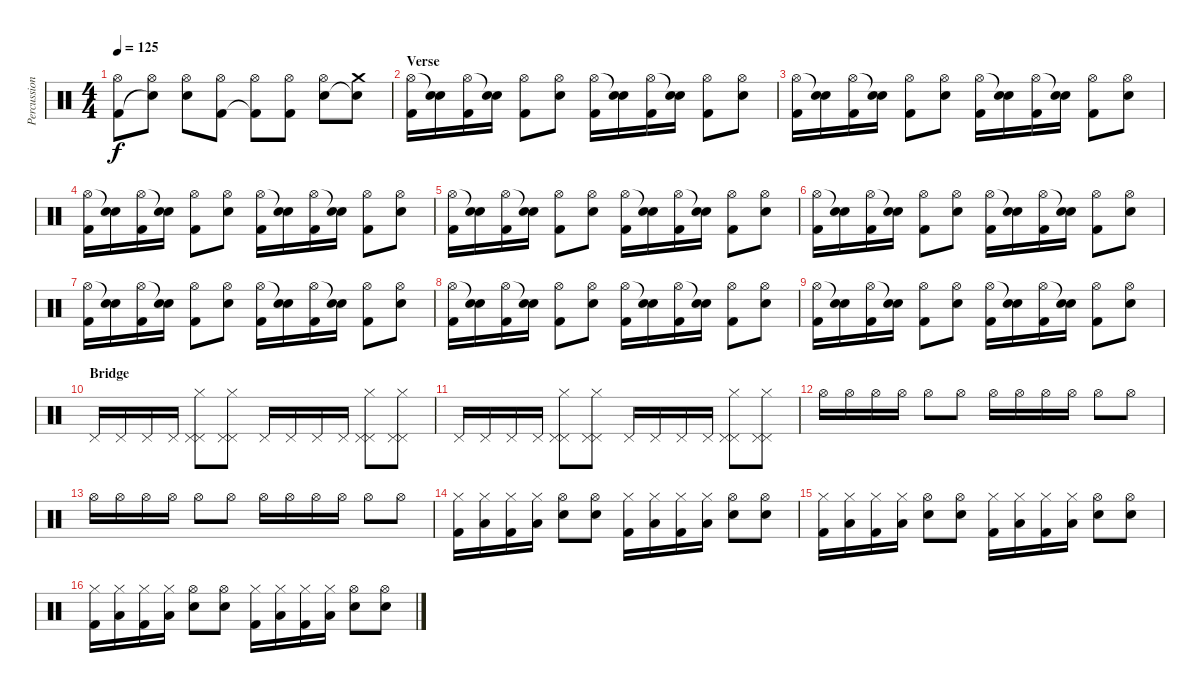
\track ("Percussion" "Percussion") {instrument percussion}
\staff {score}
\articulation defaults
\ts (4 4)
\tempo 125
\clef neutral
\ks c
("Hi-Hat (open)" "Kick (hit) 2").8{dy f} ("Hi-Hat (open)" "Snare (hit)"{t}).8 ("Hi-Hat (open)" "Electric Snare (hit)").8 ("Hi-Hat (open)" "Kick (hit) 2").8 ("Hi-Hat (open)" "Kick (hit) 2"{t}).8 ("Hi-Hat (open)" "Kick (hit) 2").8 ("Hi-Hat (open)" "Electric Snare (hit)").8 ("Crash medium (hit)" "Snare (hit)"{t}).8 |
\section ("" "Verse")
("Hi-Hat (open)" "Kick (hit) 2").16 ("Snare (hit)"{t} "Electric Snare (hit)").16 ("Hi-Hat (open)" "Kick (hit) 2").16 ("Snare (hit)"{t} "Electric Snare (hit)").16 ("Hi-Hat (open)" "Kick (hit) 2").8 ("Hi-Hat (open)" "Electric Snare (hit)").8 ("Hi-Hat (open)" "Kick (hit) 2").16 ("Snare (hit)"{t} "Electric Snare (hit)").16 ("Hi-Hat (open)" "Kick (hit) 2").16 ("Snare (hit)"{t} "Electric Snare (hit)").16 ("Hi-Hat (open)" "Kick (hit) 2").8 ("Hi-Hat (open)" "Electric Snare (hit)").8 |
("Hi-Hat (open)" "Kick (hit) 2").16 ("Snare (hit)"{t} "Electric Snare (hit)").16 ("Hi-Hat (open)" "Kick (hit) 2").16 ("Snare (hit)"{t} "Electric Snare (hit)").16 ("Hi-Hat (open)" "Kick (hit) 2").8 ("Hi-Hat (open)" "Electric Snare (hit)").8 ("Hi-Hat (open)" "Kick (hit) 2").16 ("Snare (hit)"{t} "Electric Snare (hit)").16 ("Hi-Hat (open)" "Kick (hit) 2").16 ("Snare (hit)"{t} "Electric Snare (hit)").16 ("Hi-Hat (open)" "Kick (hit) 2").8 ("Hi-Hat (open)" "Electric Snare (hit)").8 |
("Hi-Hat (open)" "Kick (hit) 2").16 ("Snare (hit)"{t} "Electric Snare (hit)").16 ("Hi-Hat (open)" "Kick (hit) 2").16 ("Snare (hit)"{t} "Electric Snare (hit)").16 ("Hi-Hat (open)" "Kick (hit) 2").8 ("Hi-Hat (open)" "Electric Snare (hit)").8 ("Hi-Hat (open)" "Kick (hit) 2").16 ("Snare (hit)"{t} "Electric Snare (hit)").16 ("Hi-Hat (open)" "Kick (hit) 2").16 ("Snare (hit)"{t} "Electric Snare (hit)").16 ("Hi-Hat (open)" "Kick (hit) 2").8 ("Hi-Hat (open)" "Electric Snare (hit)").8 |
("Hi-Hat (open)" "Kick (hit) 2").16 ("Snare (hit)"{t} "Electric Snare (hit)").16 ("Hi-Hat (open)" "Kick (hit) 2").16 ("Snare (hit)"{t} "Electric Snare (hit)").16 ("Hi-Hat (open)" "Kick (hit) 2").8 ("Hi-Hat (open)" "Electric Snare (hit)").8 ("Hi-Hat (open)" "Kick (hit) 2").16 ("Snare (hit)"{t} "Electric Snare (hit)").16 ("Hi-Hat (open)" "Kick (hit) 2").16 ("Snare (hit)"{t} "Electric Snare (hit)").16 ("Hi-Hat (open)" "Kick (hit) 2").8 ("Hi-Hat (open)" "Electric Snare (hit)").8 |
("Hi-Hat (open)" "Kick (hit) 2").16 ("Snare (hit)"{t} "Electric Snare (hit)").16 ("Hi-Hat (open)" "Kick (hit) 2").16 ("Snare (hit)"{t} "Electric Snare (hit)").16 ("Hi-Hat (open)" "Kick (hit) 2").8 ("Hi-Hat (open)" "Electric Snare (hit)").8 ("Hi-Hat (open)" "Kick (hit) 2").16 ("Snare (hit)"{t} "Electric Snare (hit)").16 ("Hi-Hat (open)" "Kick (hit) 2").16 ("Snare (hit)"{t} "Electric Snare (hit)").16 ("Hi-Hat (open)" "Kick (hit) 2").8 ("Hi-Hat (open)" "Electric Snare (hit)").8 |
("Hi-Hat (open)" "Kick (hit) 2").16 ("Snare (hit)"{t} "Electric Snare (hit)").16 ("Hi-Hat (open)" "Kick (hit) 2").16 ("Snare (hit)"{t} "Electric Snare (hit)").16 ("Hi-Hat (open)" "Kick (hit) 2").8 ("Hi-Hat (open)" "Electric Snare (hit)").8 ("Hi-Hat (open)" "Kick (hit) 2").16 ("Snare (hit)"{t} "Electric Snare (hit)").16 ("Hi-Hat (open)" "Kick (hit) 2").16 ("Snare (hit)"{t} "Electric Snare (hit)").16 ("Hi-Hat (open)" "Kick (hit) 2").8 ("Hi-Hat (open)" "Electric Snare (hit)").8 |
("Hi-Hat (open)" "Kick (hit) 2").16 ("Snare (hit)"{t} "Electric Snare (hit)").16 ("Hi-Hat (open)" "Kick (hit) 2").16 ("Snare (hit)"{t} "Electric Snare (hit)").16 ("Hi-Hat (open)" "Kick (hit) 2").8 ("Hi-Hat (open)" "Electric Snare (hit)").8 ("Hi-Hat (open)" "Kick (hit) 2").16 ("Snare (hit)"{t} "Electric Snare (hit)").16 ("Hi-Hat (open)" "Kick (hit) 2").16 ("Snare (hit)"{t} "Electric Snare (hit)").16 ("Hi-Hat (open)" "Kick (hit) 2").8 ("Hi-Hat (open)" "Electric Snare (hit)").8 |
("Hi-Hat (open)" "Kick (hit) 2").16 ("Snare (hit)"{t} "Electric Snare (hit)").16 ("Hi-Hat (open)" "Kick (hit) 2").16 ("Snare (hit)"{t} "Electric Snare (hit)").16 ("Hi-Hat (open)" "Kick (hit) 2").8 ("Hi-Hat (open)" "Electric Snare (hit)").8 ("Hi-Hat (open)" "Kick (hit) 2").16 ("Snare (hit)"{t} "Electric Snare (hit)").16 ("Hi-Hat (open)" "Kick (hit) 2").16 ("Snare (hit)"{t} "Electric Snare (hit)").16 ("Hi-Hat (open)" "Kick (hit) 2").8 ("Hi-Hat (open)" "Electric Snare (hit)").8 |
\section ("" "Bridge")
"Pedal Hi-Hat (hit)".16 "Pedal Hi-Hat (hit)".16 "Pedal Hi-Hat (hit)".16 "Pedal Hi-Hat (hit)".16 ("Pedal Hi-Hat (hit)" "Hi-Hat (closed)" "Pedal Hi-Hat (hit)").8 ("Pedal Hi-Hat (hit)" "Hi-Hat (closed)" "Pedal Hi-Hat (hit)").8 "Pedal Hi-Hat (hit)".16 "Pedal Hi-Hat (hit)".16 "Pedal Hi-Hat (hit)".16 "Pedal Hi-Hat (hit)".16 ("Pedal Hi-Hat (hit)" "Hi-Hat (closed)" "Pedal Hi-Hat (hit)").8 ("Pedal Hi-Hat (hit)" "Hi-Hat (closed)" "Pedal Hi-Hat (hit)").8 |
"Pedal Hi-Hat (hit)".16 "Pedal Hi-Hat (hit)".16 "Pedal Hi-Hat (hit)".16 "Pedal Hi-Hat (hit)".16 ("Pedal Hi-Hat (hit)" "Hi-Hat (closed)" "Pedal Hi-Hat (hit)").8 ("Pedal Hi-Hat (hit)" "Hi-Hat (closed)" "Pedal Hi-Hat (hit)").8 "Pedal Hi-Hat (hit)".16 "Pedal Hi-Hat (hit)".16 "Pedal Hi-Hat (hit)".16 "Pedal Hi-Hat (hit)".16 ("Pedal Hi-Hat (hit)" "Hi-Hat (closed)" "Pedal Hi-Hat (hit)").8 ("Pedal Hi-Hat (hit)" "Hi-Hat (closed)" "Pedal Hi-Hat (hit)").8 |
"Hi-Hat (open)".16 "Hi-Hat (open)".16 "Hi-Hat (open)".16 "Hi-Hat (open)".16 "Hi-Hat (open)".8 "Hi-Hat (open)".8 "Hi-Hat (open)".16 "Hi-Hat (open)".16 "Hi-Hat (open)".16 "Hi-Hat (open)".16 "Hi-Hat (open)".8 "Hi-Hat (open)".8 |
"Hi-Hat (open)".16 "Hi-Hat (open)".16 "Hi-Hat (open)".16 "Hi-Hat (open)".16 "Hi-Hat (open)".8 "Hi-Hat (open)".8 "Hi-Hat (open)".16 "Hi-Hat (open)".16 "Hi-Hat (open)".16 "Hi-Hat (open)".16 "Hi-Hat (open)".8 "Hi-Hat (open)".8 |
("Hi-Hat (closed)" "Kick (hit) 2").16 ("Hi-Hat (closed)" "Low Tom (hit)").16 ("Hi-Hat (closed)" "Kick (hit) 2").16 ("Hi-Hat (closed)" "Low Tom (hit)").16 ("Hi-Hat (open)" "Electric Snare (hit)").8 ("Hi-Hat (open)" "Electric Snare (hit)").8 ("Hi-Hat (closed)" "Kick (hit) 2").16 ("Hi-Hat (closed)" "Low Tom (hit)").16 ("Hi-Hat (closed)" "Kick (hit) 2").16 ("Hi-Hat (closed)" "Low Tom (hit)").16 ("Hi-Hat (open)" "Electric Snare (hit)").8 ("Hi-Hat (open)" "Electric Snare (hit)").8 |
("Hi-Hat (closed)" "Kick (hit) 2").16 ("Hi-Hat (closed)" "Low Tom (hit)").16 ("Hi-Hat (closed)" "Kick (hit) 2").16 ("Hi-Hat (closed)" "Low Tom (hit)").16 ("Hi-Hat (open)" "Electric Snare (hit)").8 ("Hi-Hat (open)" "Electric Snare (hit)").8 ("Hi-Hat (closed)" "Kick (hit) 2").16 ("Hi-Hat (closed)" "Low Tom (hit)").16 ("Hi-Hat (closed)" "Kick (hit) 2").16 ("Hi-Hat (closed)" "Low Tom (hit)").16 ("Hi-Hat (open)" "Electric Snare (hit)").8 ("Hi-Hat (open)" "Electric Snare (hit)").8 |
("Hi-Hat (closed)" "Kick (hit) 2").16 ("Hi-Hat (closed)" "Low Tom (hit)").16 ("Hi-Hat (closed)" "Kick (hit) 2").16 ("Hi-Hat (closed)" "Low Tom (hit)").16 ("Hi-Hat (open)" "Electric Snare (hit)").8 ("Hi-Hat (open)" "Electric Snare (hit)").8 ("Hi-Hat (closed)" "Kick (hit) 2").16 ("Hi-Hat (closed)" "Low Tom (hit)").16 ("Hi-Hat (closed)" "Kick (hit) 2").16 ("Hi-Hat (closed)" "Low Tom (hit)").16 ("Hi-Hat (open)" "Electric Snare (hit)").8 ("Hi-Hat (open)" "Electric Snare (hit)").8
